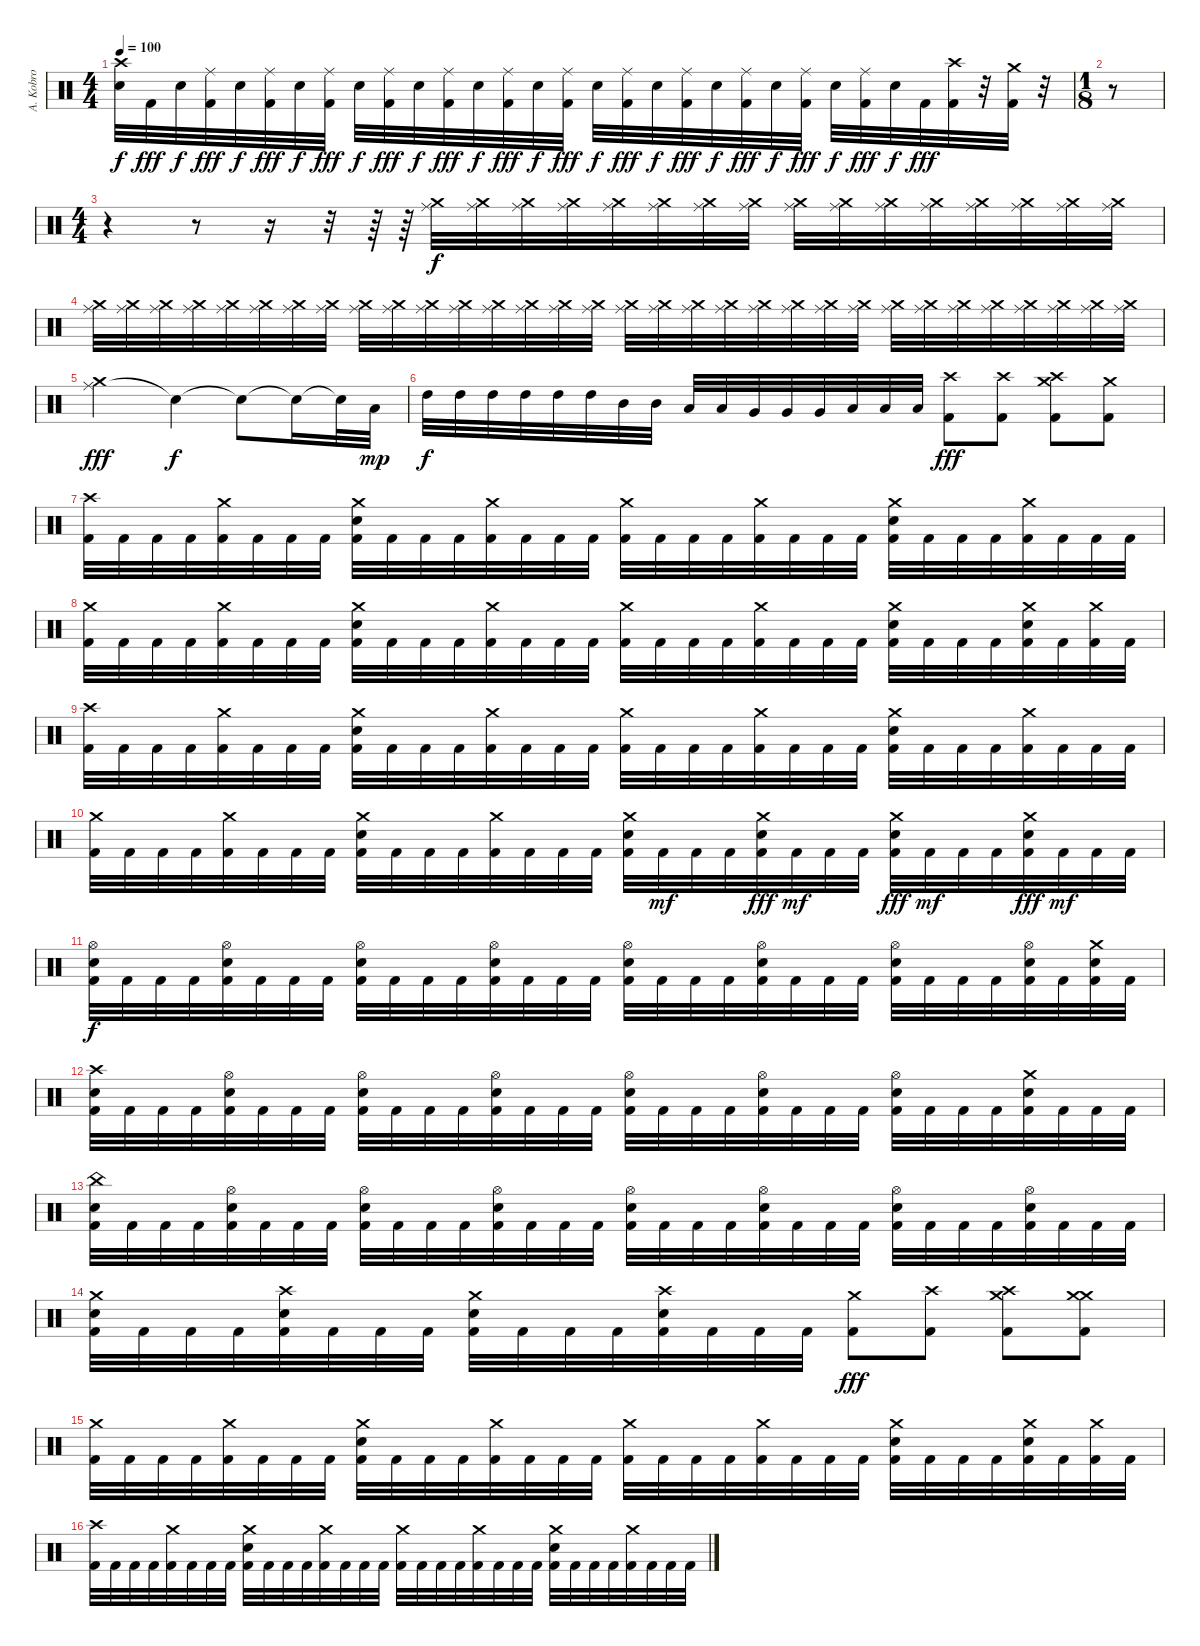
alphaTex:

\track ("A. Kobro" "A. Kobro") {instrument percussion}
\staff {score}
\articulation defaults
\ts (4 4)
\tempo 100
\clef neutral
\ks c
("Crash high (hit)" "Electric Snare (hit)").32{dy f} "Kick (hit) 2".32{dy fff} "Electric Snare (hit)".32{dy f} ("Ride (middle)" "Kick (hit) 2").32{dy fff} "Electric Snare (hit)".32{dy f} ("Ride (middle)" "Kick (hit) 2").32{dy fff} "Electric Snare (hit)".32{dy f} ("Ride (middle)" "Kick (hit) 2").32{dy fff} "Electric Snare (hit)".32{dy f} ("Ride (middle)" "Kick (hit) 2").32{dy fff} "Electric Snare (hit)".32{dy f} ("Ride (middle)" "Kick (hit) 2").32{dy fff} "Electric Snare (hit)".32{dy f} ("Ride (middle)" "Kick (hit) 2").32{dy fff} "Electric Snare (hit)".32{dy f} ("Ride (middle)" "Kick (hit) 2").32{dy fff} "Electric Snare (hit)".32{dy f} ("Ride (middle)" "Kick (hit) 2").32{dy fff} "Electric Snare (hit)".32{dy f} ("Ride (middle)" "Kick (hit) 2").32{dy fff} "Electric Snare (hit)".32{dy f} ("Ride (middle)" "Kick (hit) 2").32{dy fff} "Electric Snare (hit)".32{dy f} ("Ride (middle)" "Kick (hit) 2").32{dy fff} "Electric Snare (hit)".32{dy f} ("Ride (middle)" "Kick (hit) 2").32{dy fff} "Electric Snare (hit)".32{dy f} "Kick (hit) 2".32{dy fff} ("Crash high (hit)" "Kick (hit) 2").32 r.32 ("Crash medium (hit)" "Kick (hit) 2").32 r.32 |
\ts (1 8)
r.8 |
\ts (4 4)
r.4 r.8 r.16 r.32 r.64{volume 0} r.64{volume 14} ("Crash medium (hit)" "Ride (middle)").32{dy f} ("Crash medium (hit)" "Ride (middle)").32 ("Crash medium (hit)" "Ride (middle)").32 ("Crash medium (hit)" "Ride (middle)").32 ("Crash medium (hit)" "Ride (middle)").32 ("Crash medium (hit)" "Ride (middle)").32 ("Crash medium (hit)" "Ride (middle)").32 ("Crash medium (hit)" "Ride (middle)").32 ("Crash medium (hit)" "Ride (middle)").32 ("Crash medium (hit)" "Ride (middle)").32 ("Crash medium (hit)" "Ride (middle)").32 ("Crash medium (hit)" "Ride (middle)").32 ("Crash medium (hit)" "Ride (middle)").32 ("Crash medium (hit)" "Ride (middle)").32 ("Crash medium (hit)" "Ride (middle)").32 ("Crash medium (hit)" "Ride (middle)").32 |
("Crash medium (hit)" "Ride (middle)").32 ("Crash medium (hit)" "Ride (middle)").32 ("Crash medium (hit)" "Ride (middle)").32 ("Crash medium (hit)" "Ride (middle)").32 ("Crash medium (hit)" "Ride (middle)").32 ("Crash medium (hit)" "Ride (middle)").32 ("Crash medium (hit)" "Ride (middle)").32 ("Crash medium (hit)" "Ride (middle)").32 ("Crash medium (hit)" "Ride (middle)").32 ("Crash medium (hit)" "Ride (middle)").32 ("Crash medium (hit)" "Ride (middle)").32 ("Crash medium (hit)" "Ride (middle)").32 ("Crash medium (hit)" "Ride (middle)").32 ("Crash medium (hit)" "Ride (middle)").32 ("Crash medium (hit)" "Ride (middle)").32 ("Crash medium (hit)" "Ride (middle)").32 ("Crash medium (hit)" "Ride (middle)").32 ("Crash medium (hit)" "Ride (middle)").32 ("Crash medium (hit)" "Ride (middle)").32 ("Crash medium (hit)" "Ride (middle)").32 ("Crash medium (hit)" "Ride (middle)").32 ("Crash medium (hit)" "Ride (middle)").32 ("Crash medium (hit)" "Ride (middle)").32 ("Crash medium (hit)" "Ride (middle)").32 ("Crash medium (hit)" "Ride (middle)").32 ("Crash medium (hit)" "Ride (middle)").32 ("Crash medium (hit)" "Ride (middle)").32 ("Crash medium (hit)" "Ride (middle)").32 ("Crash medium (hit)" "Ride (middle)").32 ("Crash medium (hit)" "Ride (middle)").32 ("Crash medium (hit)" "Ride (middle)").32 ("Crash medium (hit)" "Ride (middle)").32 |
("Ride (middle)" "Crash medium (hit)").2{dy fff} "Snare (hit)"{t}.4{dy f} "Snare (hit)"{t}.8 "Snare (hit)"{t}.16 "Snare (hit)"{t}.32 "Low Tom (hit)".32{dy mp} |
"High Tom (hit)".32{dy f} "High Tom (hit)".32 "High Tom (hit)".32 "High Tom (hit)".32 "High Tom (hit)".32 "High Tom (hit)".32 "Mid Tom (hit)".32 "Mid Tom (hit)".32 "Low Tom (hit)".32 "Low Tom (hit)".32 "Very Low Tom (hit)".32 "Very Low Tom (hit)".32 "Very Low Tom (hit)".32 "Low Floor Tom (hit)".32 "Low Floor Tom (hit)".32 "Low Floor Tom (hit)".32 ("Crash high (hit)" "Kick (hit) 2").8{dy fff} ("Crash high (hit)" "Kick (hit) 2").8 ("Crash high (hit)" "Crash medium (hit)" "Kick (hit) 2").8 ("Crash medium (hit)" "Kick (hit) 2").8 |
("Crash high (hit)" "Kick (hit) 2").32 "Kick (hit) 2".32 "Kick (hit) 2".32 "Kick (hit) 2".32 ("Crash medium (hit)" "Kick (hit) 2").32 "Kick (hit) 2".32 "Kick (hit) 2".32 "Kick (hit) 2".32 ("Crash medium (hit)" "Electric Snare (hit)" "Kick (hit) 2").32 "Kick (hit) 2".32 "Kick (hit) 2".32 "Kick (hit) 2".32 ("Crash medium (hit)" "Kick (hit) 2").32 "Kick (hit) 2".32 "Kick (hit) 2".32 "Kick (hit) 2".32 ("Crash medium (hit)" "Kick (hit) 2").32 "Kick (hit) 2".32 "Kick (hit) 2".32 "Kick (hit) 2".32 ("Crash medium (hit)" "Kick (hit) 2").32 "Kick (hit) 2".32 "Kick (hit) 2".32 "Kick (hit) 2".32 ("Crash medium (hit)" "Electric Snare (hit)" "Kick (hit) 2").32 "Kick (hit) 2".32 "Kick (hit) 2".32 "Kick (hit) 2".32 ("Crash medium (hit)" "Kick (hit) 2").32 "Kick (hit) 2".32 "Kick (hit) 2".32 "Kick (hit) 2".32 |
("Crash medium (hit)" "Kick (hit) 2").32 "Kick (hit) 2".32 "Kick (hit) 2".32 "Kick (hit) 2".32 ("Crash medium (hit)" "Kick (hit) 2").32 "Kick (hit) 2".32 "Kick (hit) 2".32 "Kick (hit) 2".32 ("Crash medium (hit)" "Electric Snare (hit)" "Kick (hit) 2").32 "Kick (hit) 2".32 "Kick (hit) 2".32 "Kick (hit) 2".32 ("Crash medium (hit)" "Kick (hit) 2").32 "Kick (hit) 2".32 "Kick (hit) 2".32 "Kick (hit) 2".32 ("Crash medium (hit)" "Kick (hit) 2").32 "Kick (hit) 2".32 "Kick (hit) 2".32 "Kick (hit) 2".32 ("Crash medium (hit)" "Kick (hit) 2").32 "Kick (hit) 2".32 "Kick (hit) 2".32 "Kick (hit) 2".32 ("Crash medium (hit)" "Electric Snare (hit)" "Kick (hit) 2").32 "Kick (hit) 2".32 "Kick (hit) 2".32 "Kick (hit) 2".32 ("Crash medium (hit)" "Electric Snare (hit)" "Kick (hit) 2").32 "Kick (hit) 2".32 ("Crash medium (hit)" "Kick (hit) 2").32 "Kick (hit) 2".32 |
("Crash high (hit)" "Kick (hit) 2").32 "Kick (hit) 2".32 "Kick (hit) 2".32 "Kick (hit) 2".32 ("Crash medium (hit)" "Kick (hit) 2").32 "Kick (hit) 2".32 "Kick (hit) 2".32 "Kick (hit) 2".32 ("Crash medium (hit)" "Electric Snare (hit)" "Kick (hit) 2").32 "Kick (hit) 2".32 "Kick (hit) 2".32 "Kick (hit) 2".32 ("Crash medium (hit)" "Kick (hit) 2").32 "Kick (hit) 2".32 "Kick (hit) 2".32 "Kick (hit) 2".32 ("Crash medium (hit)" "Kick (hit) 2").32 "Kick (hit) 2".32 "Kick (hit) 2".32 "Kick (hit) 2".32 ("Crash medium (hit)" "Kick (hit) 2").32 "Kick (hit) 2".32 "Kick (hit) 2".32 "Kick (hit) 2".32 ("Crash medium (hit)" "Electric Snare (hit)" "Kick (hit) 2").32 "Kick (hit) 2".32 "Kick (hit) 2".32 "Kick (hit) 2".32 ("Crash medium (hit)" "Kick (hit) 2").32 "Kick (hit) 2".32 "Kick (hit) 2".32 "Kick (hit) 2".32 |
("Crash medium (hit)" "Kick (hit) 2").32 "Kick (hit) 2".32 "Kick (hit) 2".32 "Kick (hit) 2".32 ("Crash medium (hit)" "Kick (hit) 2").32 "Kick (hit) 2".32 "Kick (hit) 2".32 "Kick (hit) 2".32 ("Crash medium (hit)" "Electric Snare (hit)" "Kick (hit) 2").32 "Kick (hit) 2".32 "Kick (hit) 2".32 "Kick (hit) 2".32 ("Crash medium (hit)" "Kick (hit) 2").32 "Kick (hit) 2".32 "Kick (hit) 2".32 "Kick (hit) 2".32 ("Crash medium (hit)" "Electric Snare (hit)" "Kick (hit) 2").32 "Kick (hit) 2".32{dy mf} "Kick (hit) 2".32 "Kick (hit) 2".32 ("Crash medium (hit)" "Electric Snare (hit)" "Kick (hit) 2").32{dy fff} "Kick (hit) 2".32{dy mf} "Kick (hit) 2".32 "Kick (hit) 2".32 ("Crash medium (hit)" "Electric Snare (hit)" "Kick (hit) 2").32{dy fff} "Kick (hit) 2".32{dy mf} "Kick (hit) 2".32 "Kick (hit) 2".32 ("Crash medium (hit)" "Electric Snare (hit)" "Kick (hit) 2").32{dy fff} "Kick (hit) 2".32{dy mf} "Kick (hit) 2".32 "Kick (hit) 2".32 |
("Hi-Hat (open)" "Electric Snare (hit)" "Kick (hit) 2").32{dy f} "Kick (hit) 2".32 "Kick (hit) 2".32 "Kick (hit) 2".32 ("Hi-Hat (open)" "Electric Snare (hit)" "Kick (hit) 2").32 "Kick (hit) 2".32 "Kick (hit) 2".32 "Kick (hit) 2".32 ("Hi-Hat (open)" "Electric Snare (hit)" "Kick (hit) 2").32 "Kick (hit) 2".32 "Kick (hit) 2".32 "Kick (hit) 2".32 ("Hi-Hat (open)" "Electric Snare (hit)" "Kick (hit) 2").32 "Kick (hit) 2".32 "Kick (hit) 2".32 "Kick (hit) 2".32 ("Hi-Hat (open)" "Electric Snare (hit)" "Kick (hit) 2").32 "Kick (hit) 2".32 "Kick (hit) 2".32 "Kick (hit) 2".32 ("Hi-Hat (open)" "Electric Snare (hit)" "Kick (hit) 2").32 "Kick (hit) 2".32 "Kick (hit) 2".32 "Kick (hit) 2".32 ("Hi-Hat (open)" "Electric Snare (hit)" "Kick (hit) 2").32 "Kick (hit) 2".32 "Kick (hit) 2".32 "Kick (hit) 2".32 ("Hi-Hat (open)" "Electric Snare (hit)" "Kick (hit) 2").32 "Kick (hit) 2".32 ("Crash medium (hit)" "Electric Snare (hit)" "Kick (hit) 2").32 "Kick (hit) 2".32 |
("Crash high (hit)" "Electric Snare (hit)" "Kick (hit) 2").32 "Kick (hit) 2".32 "Kick (hit) 2".32 "Kick (hit) 2".32 ("Hi-Hat (open)" "Electric Snare (hit)" "Kick (hit) 2").32 "Kick (hit) 2".32 "Kick (hit) 2".32 "Kick (hit) 2".32 ("Hi-Hat (open)" "Electric Snare (hit)" "Kick (hit) 2").32 "Kick (hit) 2".32 "Kick (hit) 2".32 "Kick (hit) 2".32 ("Hi-Hat (open)" "Electric Snare (hit)" "Kick (hit) 2").32 "Kick (hit) 2".32 "Kick (hit) 2".32 "Kick (hit) 2".32 ("Hi-Hat (open)" "Electric Snare (hit)" "Kick (hit) 2").32 "Kick (hit) 2".32 "Kick (hit) 2".32 "Kick (hit) 2".32 ("Hi-Hat (open)" "Electric Snare (hit)" "Kick (hit) 2").32 "Kick (hit) 2".32 "Kick (hit) 2".32 "Kick (hit) 2".32 ("Hi-Hat (open)" "Electric Snare (hit)" "Kick (hit) 2").32 "Kick (hit) 2".32 "Kick (hit) 2".32 "Kick (hit) 2".32 ("Crash medium (hit)" "Electric Snare (hit)" "Kick (hit) 2").32 "Kick (hit) 2".32 "Kick (hit) 2".32 "Kick (hit) 2".32 |
("China (hit)" "Electric Snare (hit)" "Kick (hit) 2").32 "Kick (hit) 2".32 "Kick (hit) 2".32 "Kick (hit) 2".32 ("Hi-Hat (open)" "Electric Snare (hit)" "Kick (hit) 2").32 "Kick (hit) 2".32 "Kick (hit) 2".32 "Kick (hit) 2".32 ("Hi-Hat (open)" "Electric Snare (hit)" "Kick (hit) 2").32 "Kick (hit) 2".32 "Kick (hit) 2".32 "Kick (hit) 2".32 ("Hi-Hat (open)" "Electric Snare (hit)" "Kick (hit) 2").32 "Kick (hit) 2".32 "Kick (hit) 2".32 "Kick (hit) 2".32 ("Hi-Hat (open)" "Electric Snare (hit)" "Kick (hit) 2").32 "Kick (hit) 2".32 "Kick (hit) 2".32 "Kick (hit) 2".32 ("Hi-Hat (open)" "Electric Snare (hit)" "Kick (hit) 2").32 "Kick (hit) 2".32 "Kick (hit) 2".32 "Kick (hit) 2".32 ("Hi-Hat (open)" "Electric Snare (hit)" "Kick (hit) 2").32 "Kick (hit) 2".32 "Kick (hit) 2".32 "Kick (hit) 2".32 ("Hi-Hat (open)" "Electric Snare (hit)" "Kick (hit) 2").32 "Kick (hit) 2".32 "Kick (hit) 2".32 "Kick (hit) 2".32 |
("Crash medium (hit)" "Electric Snare (hit)" "Kick (hit) 2").32 "Kick (hit) 2".32 "Kick (hit) 2".32 "Kick (hit) 2".32 ("Crash high (hit)" "Electric Snare (hit)" "Kick (hit) 2").32 "Kick (hit) 2".32 "Kick (hit) 2".32 "Kick (hit) 2".32 ("Crash medium (hit)" "Electric Snare (hit)" "Kick (hit) 2").32 "Kick (hit) 2".32 "Kick (hit) 2".32 "Kick (hit) 2".32 ("Crash high (hit)" "Electric Snare (hit)" "Kick (hit) 2").32 "Kick (hit) 2".32 "Kick (hit) 2".32 "Kick (hit) 2".32 ("Crash medium (hit)" "Kick (hit) 2").8{dy fff} ("Crash high (hit)" "Kick (hit) 2").8 ("Crash high (hit)" "Crash medium (hit)" "Kick (hit) 2").8 ("Crash medium (hit)" "Crash medium (hit)" "Kick (hit) 2").8 |
("Crash medium (hit)" "Kick (hit) 2").32 "Kick (hit) 2".32 "Kick (hit) 2".32 "Kick (hit) 2".32 ("Crash medium (hit)" "Kick (hit) 2").32 "Kick (hit) 2".32 "Kick (hit) 2".32 "Kick (hit) 2".32 ("Crash medium (hit)" "Electric Snare (hit)" "Kick (hit) 2").32 "Kick (hit) 2".32 "Kick (hit) 2".32 "Kick (hit) 2".32 ("Crash medium (hit)" "Kick (hit) 2").32 "Kick (hit) 2".32 "Kick (hit) 2".32 "Kick (hit) 2".32 ("Crash medium (hit)" "Kick (hit) 2").32 "Kick (hit) 2".32 "Kick (hit) 2".32 "Kick (hit) 2".32 ("Crash medium (hit)" "Kick (hit) 2").32 "Kick (hit) 2".32 "Kick (hit) 2".32 "Kick (hit) 2".32 ("Crash medium (hit)" "Electric Snare (hit)" "Kick (hit) 2").32 "Kick (hit) 2".32 "Kick (hit) 2".32 "Kick (hit) 2".32 ("Crash medium (hit)" "Electric Snare (hit)" "Kick (hit) 2").32 "Kick (hit) 2".32 ("Crash medium (hit)" "Kick (hit) 2").32 "Kick (hit) 2".32 |
("Crash high (hit)" "Kick (hit) 2").32 "Kick (hit) 2".32 "Kick (hit) 2".32 "Kick (hit) 2".32 ("Crash medium (hit)" "Kick (hit) 2").32 "Kick (hit) 2".32 "Kick (hit) 2".32 "Kick (hit) 2".32 ("Crash medium (hit)" "Electric Snare (hit)" "Kick (hit) 2").32 "Kick (hit) 2".32 "Kick (hit) 2".32 "Kick (hit) 2".32 ("Crash medium (hit)" "Kick (hit) 2").32 "Kick (hit) 2".32 "Kick (hit) 2".32 "Kick (hit) 2".32 ("Crash medium (hit)" "Kick (hit) 2").32 "Kick (hit) 2".32 "Kick (hit) 2".32 "Kick (hit) 2".32 ("Crash medium (hit)" "Kick (hit) 2").32 "Kick (hit) 2".32 "Kick (hit) 2".32 "Kick (hit) 2".32 ("Crash medium (hit)" "Electric Snare (hit)" "Kick (hit) 2").32 "Kick (hit) 2".32 "Kick (hit) 2".32 "Kick (hit) 2".32 ("Crash medium (hit)" "Kick (hit) 2").32 "Kick (hit) 2".32 "Kick (hit) 2".32 "Kick (hit) 2".32
